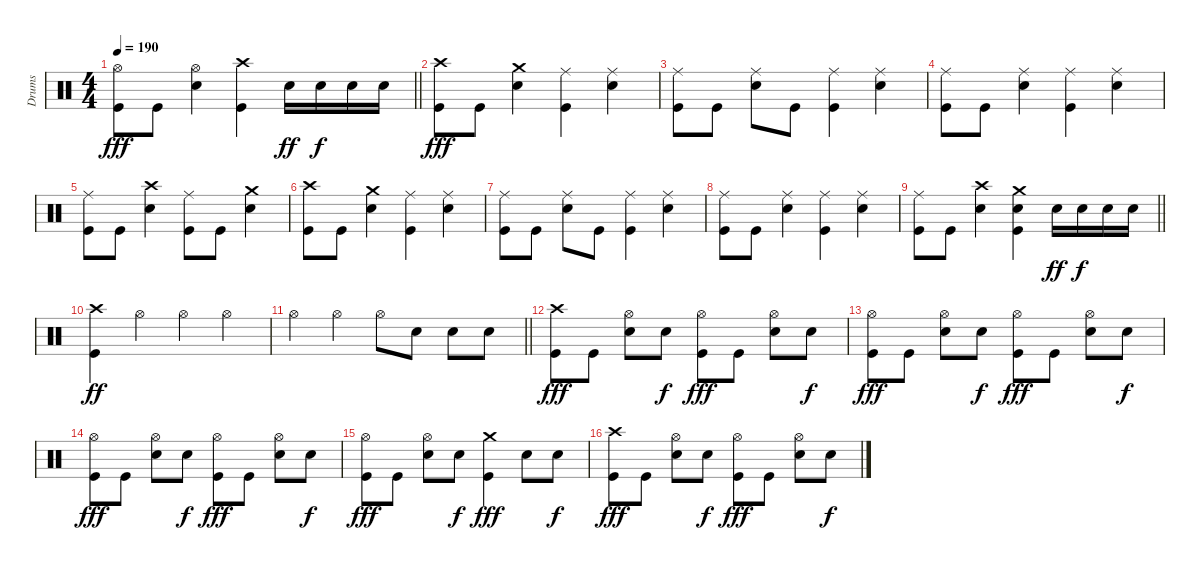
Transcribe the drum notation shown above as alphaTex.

\track ("Drums" "Drums") {instrument percussion}
\staff {score}
\articulation defaults
\ts (4 4)
\tempo 190
\clef neutral
\barLineRight lightlight
\ks c
("Hi-Hat (open)" "Kick (hit)").8{dy fff} "Kick (hit)".8 ("Hi-Hat (open)" "Snare (hit) 2").4 ("Crash high (hit)" "Kick (hit)").4 "Snare (hit) 2".16{dy ff} "Snare (hit) 2".16{dy f} "Snare (hit) 2".16 "Snare (hit) 2".16 |
("Crash high (hit)" "Kick (hit)").8{dy fff} "Kick (hit)".8 ("Crash medium (hit)" "Snare (hit) 2").4 ("Ride (middle)" "Kick (hit)").4 ("Ride (middle)" "Snare (hit) 2").4 |
("Ride (middle)" "Kick (hit)").8 "Kick (hit)".8 ("Ride (middle)" "Snare (hit) 2").8 "Kick (hit)".8 ("Ride (middle)" "Kick (hit)").4 ("Ride (middle)" "Snare (hit) 2").4 |
("Ride (middle)" "Kick (hit)").8 "Kick (hit)".8 ("Ride (middle)" "Snare (hit) 2").4 ("Ride (middle)" "Kick (hit)").4 ("Ride (middle)" "Snare (hit) 2").4 |
("Ride (middle)" "Kick (hit)").8 "Kick (hit)".8 ("Crash high (hit)" "Snare (hit) 2").4 ("Ride (middle)" "Kick (hit)").8 "Kick (hit)".8 ("Crash medium (hit)" "Snare (hit) 2").4 |
("Crash high (hit)" "Kick (hit)").8 "Kick (hit)".8 ("Crash medium (hit)" "Snare (hit) 2").4 ("Ride (middle)" "Kick (hit)").4 ("Ride (middle)" "Snare (hit) 2").4 |
("Ride (middle)" "Kick (hit)").8 "Kick (hit)".8 ("Ride (middle)" "Snare (hit) 2").8 "Kick (hit)".8 ("Ride (middle)" "Kick (hit)").4 ("Ride (middle)" "Snare (hit) 2").4 |
("Ride (middle)" "Kick (hit)").8 "Kick (hit)".8 ("Ride (middle)" "Snare (hit) 2").4 ("Ride (middle)" "Kick (hit)").4 ("Ride (middle)" "Snare (hit) 2").4 |
\barLineRight lightlight
("Ride (middle)" "Kick (hit)").8 "Kick (hit)".8 ("Crash high (hit)" "Snare (hit) 2").4 ("Crash medium (hit)" "Snare (hit) 2" "Kick (hit)").4 "Snare (hit) 2".16{dy ff} "Snare (hit) 2".16{dy f} "Snare (hit) 2".16 "Snare (hit) 2".16 |
("Crash high (hit)" "Kick (hit)").4{dy ff} "Hi-Hat (open)".4 "Hi-Hat (open)".4 "Hi-Hat (open)".4 |
\barLineRight lightlight "Hi-Hat (open)".4 "Hi-Hat (open)".4 "Hi-Hat (open)".8 "Snare (hit) 2".8 "Snare (hit) 2".8 "Snare (hit) 2".8
|
("Crash high (hit)" "Kick (hit)").8{dy fff} "Kick (hit)".8 ("Hi-Hat (open)" "Snare (hit) 2").8 "Snare (hit) 2".8{dy f} ("Hi-Hat (open)" "Kick (hit)").8{dy fff} "Kick (hit)".8 ("Hi-Hat (open)" "Snare (hit) 2").8 "Snare (hit) 2".8{dy f} |
("Hi-Hat (open)" "Kick (hit)").8{dy fff} "Kick (hit)".8 ("Hi-Hat (open)" "Snare (hit) 2").8 "Snare (hit) 2".8{dy f} ("Hi-Hat (open)" "Kick (hit)").8{dy fff} "Kick (hit)".8 ("Hi-Hat (open)" "Snare (hit) 2").8 "Snare (hit) 2".8{dy f} |
("Hi-Hat (open)" "Kick (hit)").8{dy fff} "Kick (hit)".8 ("Hi-Hat (open)" "Snare (hit) 2").8 "Snare (hit) 2".8{dy f} ("Hi-Hat (open)" "Kick (hit)").8{dy fff} "Kick (hit)".8 ("Hi-Hat (open)" "Snare (hit) 2").8 "Snare (hit) 2".8{dy f} |
("Hi-Hat (open)" "Kick (hit)").8{dy fff} "Kick (hit)".8 ("Hi-Hat (open)" "Snare (hit) 2").8 "Snare (hit) 2".8{dy f} ("Crash medium (hit)" "Kick (hit)").4{dy fff} "Snare (hit) 2".8 "Snare (hit) 2".8{dy f} |
("Crash high (hit)" "Kick (hit)").8{dy fff} "Kick (hit)".8 ("Hi-Hat (open)" "Snare (hit) 2").8 "Snare (hit) 2".8{dy f} ("Hi-Hat (open)" "Kick (hit)").8{dy fff} "Kick (hit)".8 ("Hi-Hat (open)" "Snare (hit) 2").8 "Snare (hit) 2".8{dy f}
